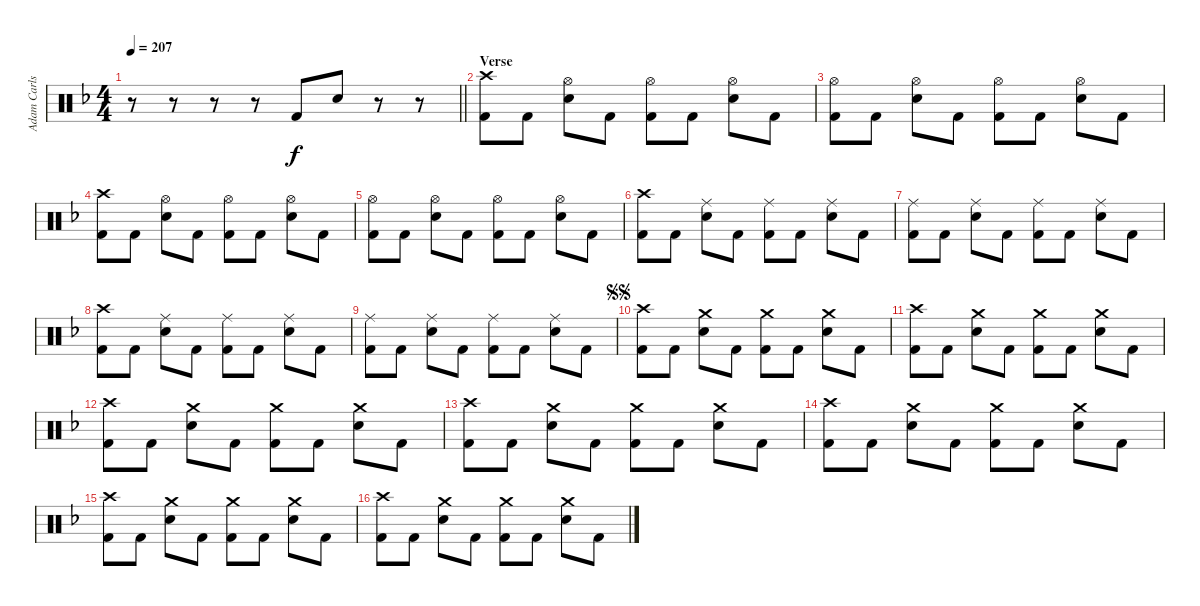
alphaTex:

\track ("Adam Carlson" "Adam Carls") {instrument percussion}
\staff {score}
\articulation defaults
\ts (4 4)
\tempo 207
\clef neutral
\barLineRight lightlight
\ks f
r.8{dy f} r.8 r.8 r.8 "Kick (hit) 2".8 "Electric Snare (hit)".8 r.8 r.8 |
\section ("" "Verse")
("Crash high (hit)" "Kick (hit) 2").8 "Kick (hit) 2".8 ("Hi-Hat (open)" "Electric Snare (hit)").8 "Kick (hit) 2".8 ("Hi-Hat (open)" "Kick (hit) 2").8 "Kick (hit) 2".8 ("Hi-Hat (open)" "Electric Snare (hit)").8 "Kick (hit) 2".8 |
("Hi-Hat (open)" "Kick (hit) 2").8 "Kick (hit) 2".8 ("Hi-Hat (open)" "Electric Snare (hit)").8 "Kick (hit) 2".8 ("Hi-Hat (open)" "Kick (hit) 2").8 "Kick (hit) 2".8 ("Hi-Hat (open)" "Electric Snare (hit)").8 "Kick (hit) 2".8 |
("Crash high (hit)" "Kick (hit) 2").8 "Kick (hit) 2".8 ("Hi-Hat (open)" "Electric Snare (hit)").8 "Kick (hit) 2".8 ("Hi-Hat (open)" "Kick (hit) 2").8 "Kick (hit) 2".8 ("Hi-Hat (open)" "Electric Snare (hit)").8 "Kick (hit) 2".8 |
("Hi-Hat (open)" "Kick (hit) 2").8 "Kick (hit) 2".8 ("Hi-Hat (open)" "Electric Snare (hit)").8 "Kick (hit) 2".8 ("Hi-Hat (open)" "Kick (hit) 2").8 "Kick (hit) 2".8 ("Hi-Hat (open)" "Electric Snare (hit)").8 "Kick (hit) 2".8 |
("Crash high (hit)" "Kick (hit) 2").8 "Kick (hit) 2".8 ("Ride (middle)" "Electric Snare (hit)").8 "Kick (hit) 2".8 ("Ride (middle)" "Kick (hit) 2").8 "Kick (hit) 2".8 ("Ride (middle)" "Electric Snare (hit)").8 "Kick (hit) 2".8 |
("Ride (middle)" "Kick (hit) 2").8 "Kick (hit) 2".8 ("Ride (middle)" "Electric Snare (hit)").8 "Kick (hit) 2".8 ("Ride (middle)" "Kick (hit) 2").8 "Kick (hit) 2".8 ("Ride (middle)" "Electric Snare (hit)").8 "Kick (hit) 2".8 |
("Crash high (hit)" "Kick (hit) 2").8 "Kick (hit) 2".8 ("Ride (middle)" "Electric Snare (hit)").8 "Kick (hit) 2".8 ("Ride (middle)" "Kick (hit) 2").8 "Kick (hit) 2".8 ("Ride (middle)" "Electric Snare (hit)").8 "Kick (hit) 2".8 |
("Ride (middle)" "Kick (hit) 2").8 "Kick (hit) 2".8 ("Ride (middle)" "Electric Snare (hit)").8 "Kick (hit) 2".8 ("Ride (middle)" "Kick (hit) 2").8 "Kick (hit) 2".8 ("Ride (middle)" "Electric Snare (hit)").8 "Kick (hit) 2".8 |
\jump segnosegno
("Crash high (hit)" "Kick (hit) 2").8 "Kick (hit) 2".8 ("Crash medium (hit)" "Electric Snare (hit)").8 "Kick (hit) 2".8 ("Crash medium (hit)" "Kick (hit) 2").8 "Kick (hit) 2".8 ("Crash medium (hit)" "Electric Snare (hit)").8 "Kick (hit) 2".8 |
("Crash high (hit)" "Kick (hit) 2").8 "Kick (hit) 2".8 ("Crash medium (hit)" "Electric Snare (hit)").8 "Kick (hit) 2".8 ("Crash medium (hit)" "Kick (hit) 2").8 "Kick (hit) 2".8 ("Crash medium (hit)" "Electric Snare (hit)").8 "Kick (hit) 2".8 |
("Crash high (hit)" "Kick (hit) 2").8 "Kick (hit) 2".8 ("Crash medium (hit)" "Electric Snare (hit)").8 "Kick (hit) 2".8 ("Crash medium (hit)" "Kick (hit) 2").8 "Kick (hit) 2".8 ("Crash medium (hit)" "Electric Snare (hit)").8 "Kick (hit) 2".8 |
("Crash high (hit)" "Kick (hit) 2").8 "Kick (hit) 2".8 ("Crash medium (hit)" "Electric Snare (hit)").8 "Kick (hit) 2".8 ("Crash medium (hit)" "Kick (hit) 2").8 "Kick (hit) 2".8 ("Crash medium (hit)" "Electric Snare (hit)").8 "Kick (hit) 2".8 |
("Crash high (hit)" "Kick (hit) 2").8 "Kick (hit) 2".8 ("Crash medium (hit)" "Electric Snare (hit)").8 "Kick (hit) 2".8 ("Crash medium (hit)" "Kick (hit) 2").8 "Kick (hit) 2".8 ("Crash medium (hit)" "Electric Snare (hit)").8 "Kick (hit) 2".8 |
("Crash high (hit)" "Kick (hit) 2").8 "Kick (hit) 2".8 ("Crash medium (hit)" "Electric Snare (hit)").8 "Kick (hit) 2".8 ("Crash medium (hit)" "Kick (hit) 2").8 "Kick (hit) 2".8 ("Crash medium (hit)" "Electric Snare (hit)").8 "Kick (hit) 2".8 |
("Crash high (hit)" "Kick (hit) 2").8 "Kick (hit) 2".8 ("Crash medium (hit)" "Electric Snare (hit)").8 "Kick (hit) 2".8 ("Crash medium (hit)" "Kick (hit) 2").8 "Kick (hit) 2".8 ("Crash medium (hit)" "Electric Snare (hit)").8 "Kick (hit) 2".8
